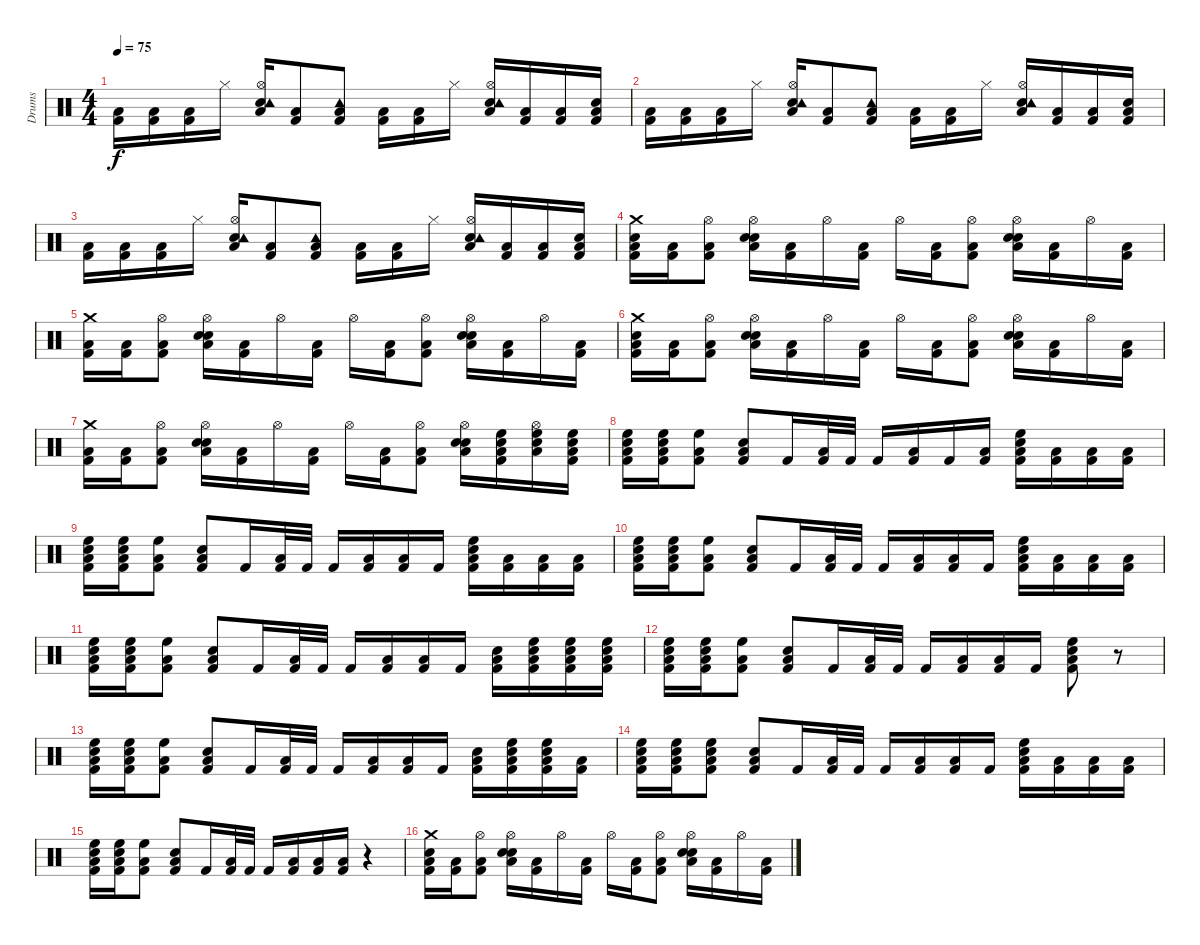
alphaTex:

\track ("Drums" "Drums") {instrument percussion}
\staff {score}
\articulation defaults
\ts (4 4)
\tempo 75
\clef neutral
\ks c
("Kick (hit) 2" "Low Tom (hit)").16{dy f} ("Kick (hit) 2" "Low Tom (hit)").16 ("Kick (hit) 2" "Low Tom (hit)").16 "Hi-Hat (closed)".16 ("Low Tom (hit)" "Snare (hit) 2" "Hi-Hat (open)" "Tambourine (hit)").16 ("Low Tom (hit)" "Kick (hit) 2").8 ("Tambourine (hit)" "Low Tom (hit)" "Kick (hit) 2").8 ("Low Tom (hit)" "Kick (hit) 2").16 ("Kick (hit) 2" "Low Tom (hit)").16 "Hi-Hat (closed)".16 ("Low Tom (hit)" "Snare (hit) 2" "Hi-Hat (open)" "Tambourine (hit)").16 ("Low Tom (hit)" "Kick (hit) 2").16 ("Low Tom (hit)" "Kick (hit) 2").16 ("Low Tom (hit)" "Snare (hit) 2" "Kick (hit) 2").16 |
("Kick (hit) 2" "Low Tom (hit)").16 ("Kick (hit) 2" "Low Tom (hit)").16 ("Kick (hit) 2" "Low Tom (hit)").16 "Hi-Hat (closed)".16 ("Low Tom (hit)" "Snare (hit) 2" "Hi-Hat (open)" "Tambourine (hit)").16 ("Low Tom (hit)" "Kick (hit) 2").8 ("Tambourine (hit)" "Low Tom (hit)" "Kick (hit) 2").8 ("Low Tom (hit)" "Kick (hit) 2").16 ("Kick (hit) 2" "Low Tom (hit)").16 "Hi-Hat (closed)".16 ("Low Tom (hit)" "Snare (hit) 2" "Hi-Hat (open)" "Tambourine (hit)").16 ("Low Tom (hit)" "Kick (hit) 2").16 ("Low Tom (hit)" "Kick (hit) 2").16 ("Low Tom (hit)" "Snare (hit) 2" "Kick (hit) 2").16 |
("Kick (hit) 2" "Low Tom (hit)").16 ("Kick (hit) 2" "Low Tom (hit)").16 ("Kick (hit) 2" "Low Tom (hit)").16 "Hi-Hat (closed)".16 ("Low Tom (hit)" "Snare (hit) 2" "Hi-Hat (open)" "Tambourine (hit)").16 ("Low Tom (hit)" "Kick (hit) 2").8 ("Tambourine (hit)" "Low Tom (hit)" "Kick (hit) 2").8 ("Low Tom (hit)" "Kick (hit) 2").16 ("Kick (hit) 2" "Low Tom (hit)").16 "Hi-Hat (closed)".16 ("Low Tom (hit)" "Snare (hit) 2" "Hi-Hat (open)" "Tambourine (hit)").16 ("Low Tom (hit)" "Kick (hit) 2").16 ("Low Tom (hit)" "Kick (hit) 2").16 ("Low Tom (hit)" "Snare (hit) 2" "Kick (hit) 2").16 |
("Crash medium (hit)" "Snare (hit) 2" "Low Tom (hit)" "Kick (hit) 2").16 ("Low Tom (hit)" "Kick (hit) 2").16 ("Hi-Hat (open)" "Low Tom (hit)" "Kick (hit) 2").8 ("Hi-Hat (open)" "Low Tom (hit)" "Electric Snare (hit)" "Snare (hit) 2").16 ("Low Tom (hit)" "Kick (hit) 2").16 "Hi-Hat (open)".16 ("Low Tom (hit)" "Kick (hit) 2").16 "Hi-Hat (open)".16 ("Low Tom (hit)" "Kick (hit) 2").16 ("Hi-Hat (open)" "Low Tom (hit)" "Kick (hit) 2").8 ("Hi-Hat (open)" "Low Tom (hit)" "Electric Snare (hit)" "Snare (hit) 2").16 ("Low Tom (hit)" "Kick (hit) 2").16 "Hi-Hat (open)".16 ("Low Tom (hit)" "Kick (hit) 2").16 |
("Crash medium (hit)" "Low Tom (hit)" "Kick (hit) 2").16 ("Low Tom (hit)" "Kick (hit) 2").16 ("Hi-Hat (open)" "Low Tom (hit)" "Kick (hit) 2").8 ("Hi-Hat (open)" "Low Tom (hit)" "Electric Snare (hit)" "Snare (hit) 2").16 ("Low Tom (hit)" "Kick (hit) 2").16 "Hi-Hat (open)".16 ("Low Tom (hit)" "Kick (hit) 2").16 "Hi-Hat (open)".16 ("Low Tom (hit)" "Kick (hit) 2").16 ("Hi-Hat (open)" "Low Tom (hit)" "Kick (hit) 2").8 ("Hi-Hat (open)" "Low Tom (hit)" "Electric Snare (hit)" "Snare (hit) 2").16 ("Low Tom (hit)" "Kick (hit) 2").16 "Hi-Hat (open)".16 ("Low Tom (hit)" "Kick (hit) 2").16 |
("Crash medium (hit)" "Snare (hit) 2" "Low Tom (hit)" "Kick (hit) 2").16 ("Low Tom (hit)" "Kick (hit) 2").16 ("Hi-Hat (open)" "Low Tom (hit)" "Kick (hit) 2").8 ("Hi-Hat (open)" "Low Tom (hit)" "Electric Snare (hit)" "Snare (hit) 2").16 ("Low Tom (hit)" "Kick (hit) 2").16 "Hi-Hat (open)".16 ("Low Tom (hit)" "Kick (hit) 2").16 "Hi-Hat (open)".16 ("Low Tom (hit)" "Kick (hit) 2").16 ("Hi-Hat (open)" "Low Tom (hit)" "Kick (hit) 2").8 ("Hi-Hat (open)" "Low Tom (hit)" "Electric Snare (hit)" "Snare (hit) 2").16 ("Low Tom (hit)" "Kick (hit) 2").16 "Hi-Hat (open)".16 ("Low Tom (hit)" "Kick (hit) 2").16 |
("Crash medium (hit)" "Low Tom (hit)" "Kick (hit) 2").16 ("Low Tom (hit)" "Kick (hit) 2").16 ("Hi-Hat (open)" "Low Tom (hit)" "Kick (hit) 2").8 ("Hi-Hat (open)" "Low Tom (hit)" "Electric Snare (hit)" "Snare (hit) 2").16 ("Low Tom (hit)" "Kick (hit) 2").16 "Hi-Hat (open)".16 ("Low Tom (hit)" "Kick (hit) 2").16 "Hi-Hat (open)".16 ("Low Tom (hit)" "Kick (hit) 2").16 ("Hi-Hat (open)" "Low Tom (hit)" "Kick (hit) 2").8 ("Hi-Hat (open)" "Low Tom (hit)" "Electric Snare (hit)" "Snare (hit) 2").16 ("High Floor Tom (hit)" "Snare (hit) 2" "Low Tom (hit)" "Kick (hit) 2").16 ("Hi-Hat (open)" "High Floor Tom (hit)" "Snare (hit) 2" "Low Tom (hit)").16 ("High Floor Tom (hit)" "Snare (hit) 2" "Low Tom (hit)" "Kick (hit) 2").16 |
("High Floor Tom (hit)" "Snare (hit) 2" "Kick (hit) 2" "Low Tom (hit)").16 ("High Floor Tom (hit)" "Snare (hit) 2" "Low Tom (hit)" "Kick (hit) 2").16 ("High Floor Tom (hit)" "Low Tom (hit)" "Kick (hit) 2").8 ("Low Tom (hit)" "Snare (hit) 2" "Kick (hit) 2").8 "Kick (hit) 2".16 ("Low Tom (hit)" "Kick (hit) 2").32 "Kick (hit) 2".32 "Kick (hit) 2".16 ("Low Tom (hit)" "Kick (hit) 2").16 "Kick (hit) 2".16 ("Low Tom (hit)" "Kick (hit) 2").16 ("High Floor Tom (hit)" "Low Tom (hit)" "Snare (hit) 2" "Kick (hit) 2").16 ("Low Tom (hit)" "Kick (hit) 2").16 ("Low Tom (hit)" "Kick (hit) 2").16 ("Low Tom (hit)" "Kick (hit) 2").16 |
("High Floor Tom (hit)" "Snare (hit) 2" "Kick (hit) 2" "Low Tom (hit)").16 ("High Floor Tom (hit)" "Snare (hit) 2" "Low Tom (hit)" "Kick (hit) 2").16 ("High Floor Tom (hit)" "Low Tom (hit)" "Kick (hit) 2").8 ("Low Tom (hit)" "Snare (hit) 2" "Kick (hit) 2").8 "Kick (hit) 2".16 ("Low Tom (hit)" "Kick (hit) 2").32 "Kick (hit) 2".32 "Kick (hit) 2".16 ("Low Tom (hit)" "Kick (hit) 2").16 ("Low Tom (hit)" "Kick (hit) 2").16 "Kick (hit) 2".16 ("High Floor Tom (hit)" "Low Tom (hit)" "Snare (hit) 2" "Kick (hit) 2").16 ("Low Tom (hit)" "Kick (hit) 2").16 ("Low Tom (hit)" "Kick (hit) 2").16 ("Low Tom (hit)" "Kick (hit) 2").16 |
("High Floor Tom (hit)" "Snare (hit) 2" "Kick (hit) 2" "Low Tom (hit)").16 ("High Floor Tom (hit)" "Snare (hit) 2" "Low Tom (hit)" "Kick (hit) 2").16 ("High Floor Tom (hit)" "Low Tom (hit)" "Kick (hit) 2").8 ("Low Tom (hit)" "Snare (hit) 2" "Kick (hit) 2").8 "Kick (hit) 2".16 ("Low Tom (hit)" "Kick (hit) 2").32 "Kick (hit) 2".32 "Kick (hit) 2".16 ("Low Tom (hit)" "Kick (hit) 2").16 ("Low Tom (hit)" "Kick (hit) 2").16 "Kick (hit) 2".16 ("High Floor Tom (hit)" "Low Tom (hit)" "Snare (hit) 2" "Kick (hit) 2").16 ("Low Tom (hit)" "Kick (hit) 2").16 ("Low Tom (hit)" "Kick (hit) 2").16 ("Low Tom (hit)" "Kick (hit) 2").16 |
("High Floor Tom (hit)" "Snare (hit) 2" "Kick (hit) 2" "Low Tom (hit)").16 ("High Floor Tom (hit)" "Snare (hit) 2" "Low Tom (hit)" "Kick (hit) 2").16 ("High Floor Tom (hit)" "Low Tom (hit)" "Kick (hit) 2").8 ("Low Tom (hit)" "Snare (hit) 2" "Kick (hit) 2").8 "Kick (hit) 2".16 ("Low Tom (hit)" "Kick (hit) 2").32 "Kick (hit) 2".32 "Kick (hit) 2".16 ("Low Tom (hit)" "Kick (hit) 2").16 ("Low Tom (hit)" "Kick (hit) 2").16 "Kick (hit) 2".16 ("Low Tom (hit)" "Snare (hit) 2" "Kick (hit) 2").16 ("High Floor Tom (hit)" "Snare (hit) 2" "Low Tom (hit)" "Kick (hit) 2").16 ("High Floor Tom (hit)" "Snare (hit) 2" "Low Tom (hit)" "Kick (hit) 2").16 ("High Floor Tom (hit)" "Snare (hit) 2" "Low Tom (hit)" "Kick (hit) 2").16 |
("High Floor Tom (hit)" "Snare (hit) 2" "Kick (hit) 2" "Low Tom (hit)").16 ("High Floor Tom (hit)" "Snare (hit) 2" "Low Tom (hit)" "Kick (hit) 2").16 ("High Floor Tom (hit)" "Low Tom (hit)" "Kick (hit) 2").8 ("Low Tom (hit)" "Snare (hit) 2" "Kick (hit) 2").8 "Kick (hit) 2".16 ("Low Tom (hit)" "Kick (hit) 2").32 "Kick (hit) 2".32 "Kick (hit) 2".16 ("Low Tom (hit)" "Kick (hit) 2").16 ("Low Tom (hit)" "Kick (hit) 2").16 "Kick (hit) 2".16 ("High Floor Tom (hit)" "Low Tom (hit)" "Snare (hit) 2" "Kick (hit) 2").8 r.8 |
("High Floor Tom (hit)" "Snare (hit) 2" "Kick (hit) 2" "Low Tom (hit)").16 ("High Floor Tom (hit)" "Snare (hit) 2" "Low Tom (hit)" "Kick (hit) 2").16 ("High Floor Tom (hit)" "Low Tom (hit)" "Kick (hit) 2").8 ("Low Tom (hit)" "Snare (hit) 2" "Kick (hit) 2").8 "Kick (hit) 2".16 ("Low Tom (hit)" "Kick (hit) 2").32 "Kick (hit) 2".32 "Kick (hit) 2".16 ("Low Tom (hit)" "Kick (hit) 2").16 ("Low Tom (hit)" "Kick (hit) 2").16 "Kick (hit) 2".16 ("Low Tom (hit)" "Snare (hit) 2" "Kick (hit) 2").16 ("High Floor Tom (hit)" "Snare (hit) 2" "Low Tom (hit)" "Kick (hit) 2").16 ("High Floor Tom (hit)" "Snare (hit) 2" "Low Tom (hit)" "Kick (hit) 2").16 ("Low Tom (hit)" "Kick (hit) 2").16 |
("High Floor Tom (hit)" "Snare (hit) 2" "Kick (hit) 2" "Low Tom (hit)").16 ("High Floor Tom (hit)" "Snare (hit) 2" "Low Tom (hit)" "Kick (hit) 2").16 ("High Floor Tom (hit)" "Snare (hit) 2" "Low Tom (hit)" "Kick (hit) 2").8 ("Low Tom (hit)" "Snare (hit) 2" "Kick (hit) 2").8 "Kick (hit) 2".16 ("Low Tom (hit)" "Kick (hit) 2").32 "Kick (hit) 2".32 "Kick (hit) 2".16 ("Low Tom (hit)" "Kick (hit) 2").16 ("Low Tom (hit)" "Kick (hit) 2").16 "Kick (hit) 2".16 ("High Floor Tom (hit)" "Low Tom (hit)" "Snare (hit) 2" "Kick (hit) 2").16 ("Low Tom (hit)" "Kick (hit) 2").16 ("Low Tom (hit)" "Kick (hit) 2").16 ("Low Tom (hit)" "Kick (hit) 2").16 |
("High Floor Tom (hit)" "Snare (hit) 2" "Kick (hit) 2" "Low Tom (hit)").16 ("High Floor Tom (hit)" "Snare (hit) 2" "Low Tom (hit)" "Kick (hit) 2").16 ("High Floor Tom (hit)" "Low Tom (hit)" "Kick (hit) 2").8 ("Low Tom (hit)" "Snare (hit) 2" "Kick (hit) 2").8 "Kick (hit) 2".16 ("Low Tom (hit)" "Kick (hit) 2").32 "Kick (hit) 2".32 "Kick (hit) 2".16 ("Low Tom (hit)" "Kick (hit) 2").16 ("Low Tom (hit)" "Kick (hit) 2").16 ("Low Tom (hit)" "Kick (hit) 2").16 r.4 |
("Crash medium (hit)" "Snare (hit) 2" "Low Tom (hit)" "Kick (hit) 2").16 ("Low Tom (hit)" "Kick (hit) 2").16 ("Hi-Hat (open)" "Low Tom (hit)" "Kick (hit) 2").8 ("Hi-Hat (open)" "Low Tom (hit)" "Electric Snare (hit)" "Snare (hit) 2").16 ("Low Tom (hit)" "Kick (hit) 2").16 "Hi-Hat (open)".16 ("Low Tom (hit)" "Kick (hit) 2").16 "Hi-Hat (open)".16 ("Low Tom (hit)" "Kick (hit) 2").16 ("Hi-Hat (open)" "Low Tom (hit)" "Kick (hit) 2").8 ("Hi-Hat (open)" "Low Tom (hit)" "Electric Snare (hit)" "Snare (hit) 2").16 ("Low Tom (hit)" "Kick (hit) 2").16 "Hi-Hat (open)".16 ("Low Tom (hit)" "Kick (hit) 2").16
